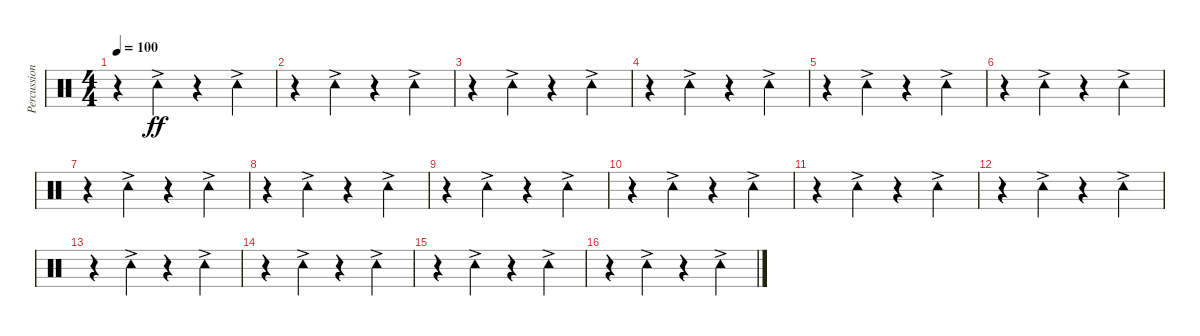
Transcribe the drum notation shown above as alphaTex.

\track ("Percussion" "Percussion") {instrument percussion}
\staff {score}
\articulation defaults
\ts (4 4)
\tempo 100
\clef neutral
\ks c
r.4{dy ff} "Tambourine (hit)"{ac}.4 r.4 "Tambourine (hit)"{ac}.4 |
r.4 "Tambourine (hit)"{ac}.4 r.4 "Tambourine (hit)"{ac}.4 |
r.4 "Tambourine (hit)"{ac}.4 r.4 "Tambourine (hit)"{ac}.4 |
r.4 "Tambourine (hit)"{ac}.4 r.4 "Tambourine (hit)"{ac}.4 |
r.4 "Tambourine (hit)"{ac}.4 r.4 "Tambourine (hit)"{ac}.4 |
r.4 "Tambourine (hit)"{ac}.4 r.4 "Tambourine (hit)"{ac}.4 |
r.4 "Tambourine (hit)"{ac}.4 r.4 "Tambourine (hit)"{ac}.4 |
r.4 "Tambourine (hit)"{ac}.4 r.4 "Tambourine (hit)"{ac}.4 |
r.4 "Tambourine (hit)"{ac}.4 r.4 "Tambourine (hit)"{ac}.4 |
r.4 "Tambourine (hit)"{ac}.4 r.4 "Tambourine (hit)"{ac}.4 |
r.4 "Tambourine (hit)"{ac}.4 r.4 "Tambourine (hit)"{ac}.4 |
r.4 "Tambourine (hit)"{ac}.4 r.4 "Tambourine (hit)"{ac}.4 |
r.4 "Tambourine (hit)"{ac}.4 r.4 "Tambourine (hit)"{ac}.4 |
r.4 "Tambourine (hit)"{ac}.4 r.4 "Tambourine (hit)"{ac}.4 |
r.4 "Tambourine (hit)"{ac}.4 r.4 "Tambourine (hit)"{ac}.4 |
r.4 "Tambourine (hit)"{ac}.4 r.4 "Tambourine (hit)"{ac}.4
